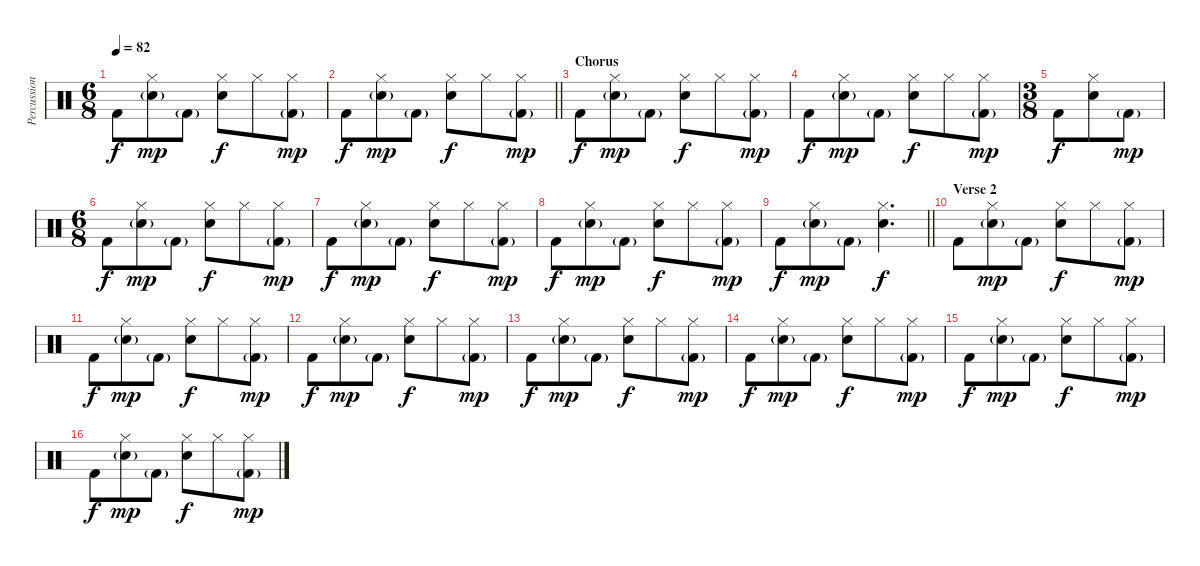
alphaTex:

\track ("Percussion" "Percussion") {instrument percussion}
\staff {score}
\articulation defaults
\ts (6 8)
\tempo 82
\clef neutral
\ks c "Kick (hit) 2".8{dy f}
("Hi-Hat (closed)" "Snare (hit) 2"{g}).8{dy mp} "Kick (hit) 2"{g}.8 ("Hi-Hat (closed)" "Snare (hit) 2").8{dy f} "Hi-Hat (closed)".8 ("Hi-Hat (closed)" "Kick (hit) 2"{g}).8{dy mp} |
\barLineRight lightlight "Kick (hit) 2".8{dy f}
("Hi-Hat (closed)" "Snare (hit) 2"{g}).8{dy mp} "Kick (hit) 2"{g}.8 ("Hi-Hat (closed)" "Snare (hit) 2").8{dy f} "Hi-Hat (closed)".8 ("Hi-Hat (closed)" "Kick (hit) 2"{g}).8{dy mp} |
\section ("" "Chorus")
"Kick (hit) 2".8{dy f} ("Hi-Hat (closed)" "Snare (hit) 2"{g}).8{dy mp} "Kick (hit) 2"{g}.8 ("Hi-Hat (closed)" "Snare (hit) 2").8{dy f} "Hi-Hat (closed)".8 ("Hi-Hat (closed)" "Kick (hit) 2"{g}).8{dy mp} |
"Kick (hit) 2".8{dy f} ("Hi-Hat (closed)" "Snare (hit) 2"{g}).8{dy mp} "Kick (hit) 2"{g}.8 ("Hi-Hat (closed)" "Snare (hit) 2").8{dy f} "Hi-Hat (closed)".8 ("Hi-Hat (closed)" "Kick (hit) 2"{g}).8{dy mp} |
\ts (3 8)
"Kick (hit) 2".8{dy f} ("Hi-Hat (closed)" "Snare (hit) 2").8 "Kick (hit) 2"{g}.8{dy mp} |
\ts (6 8)
"Kick (hit) 2".8{dy f} ("Hi-Hat (closed)" "Snare (hit) 2"{g}).8{dy mp} "Kick (hit) 2"{g}.8 ("Hi-Hat (closed)" "Snare (hit) 2").8{dy f} "Hi-Hat (closed)".8 ("Hi-Hat (closed)" "Kick (hit) 2"{g}).8{dy mp} |
"Kick (hit) 2".8{dy f} ("Hi-Hat (closed)" "Snare (hit) 2"{g}).8{dy mp} "Kick (hit) 2"{g}.8 ("Hi-Hat (closed)" "Snare (hit) 2").8{dy f} "Hi-Hat (closed)".8 ("Hi-Hat (closed)" "Kick (hit) 2"{g}).8{dy mp} |
"Kick (hit) 2".8{dy f} ("Hi-Hat (closed)" "Snare (hit) 2"{g}).8{dy mp} "Kick (hit) 2"{g}.8 ("Hi-Hat (closed)" "Snare (hit) 2").8{dy f} "Hi-Hat (closed)".8 ("Hi-Hat (closed)" "Kick (hit) 2"{g}).8{dy mp} |
\barLineRight lightlight "Kick (hit) 2".8{dy f}
("Hi-Hat (closed)" "Snare (hit) 2"{g}).8{dy mp} "Kick (hit) 2"{g}.8 ("Hi-Hat (closed)" "Snare (hit) 2").4{d dy f} |
\section ("" "Verse 2")
"Kick (hit) 2".8 ("Hi-Hat (closed)" "Snare (hit) 2"{g}).8{dy mp} "Kick (hit) 2"{g}.8 ("Hi-Hat (closed)" "Snare (hit) 2").8{dy f} "Hi-Hat (closed)".8 ("Hi-Hat (closed)" "Kick (hit) 2"{g}).8{dy mp} |
"Kick (hit) 2".8{dy f} ("Hi-Hat (closed)" "Snare (hit) 2"{g}).8{dy mp} "Kick (hit) 2"{g}.8 ("Hi-Hat (closed)" "Snare (hit) 2").8{dy f} "Hi-Hat (closed)".8 ("Hi-Hat (closed)" "Kick (hit) 2"{g}).8{dy mp} |
"Kick (hit) 2".8{dy f} ("Hi-Hat (closed)" "Snare (hit) 2"{g}).8{dy mp} "Kick (hit) 2"{g}.8 ("Hi-Hat (closed)" "Snare (hit) 2").8{dy f} "Hi-Hat (closed)".8 ("Hi-Hat (closed)" "Kick (hit) 2"{g}).8{dy mp} |
"Kick (hit) 2".8{dy f} ("Hi-Hat (closed)" "Snare (hit) 2"{g}).8{dy mp} "Kick (hit) 2"{g}.8 ("Hi-Hat (closed)" "Snare (hit) 2").8{dy f} "Hi-Hat (closed)".8 ("Hi-Hat (closed)" "Kick (hit) 2"{g}).8{dy mp} |
"Kick (hit) 2".8{dy f} ("Hi-Hat (closed)" "Snare (hit) 2"{g}).8{dy mp} "Kick (hit) 2"{g}.8 ("Hi-Hat (closed)" "Snare (hit) 2").8{dy f} "Hi-Hat (closed)".8 ("Hi-Hat (closed)" "Kick (hit) 2"{g}).8{dy mp} |
"Kick (hit) 2".8{dy f} ("Hi-Hat (closed)" "Snare (hit) 2"{g}).8{dy mp} "Kick (hit) 2"{g}.8 ("Hi-Hat (closed)" "Snare (hit) 2").8{dy f} "Hi-Hat (closed)".8 ("Hi-Hat (closed)" "Kick (hit) 2"{g}).8{dy mp} |
"Kick (hit) 2".8{dy f} ("Hi-Hat (closed)" "Snare (hit) 2"{g}).8{dy mp} "Kick (hit) 2"{g}.8 ("Hi-Hat (closed)" "Snare (hit) 2").8{dy f} "Hi-Hat (closed)".8 ("Hi-Hat (closed)" "Kick (hit) 2"{g}).8{dy mp}
